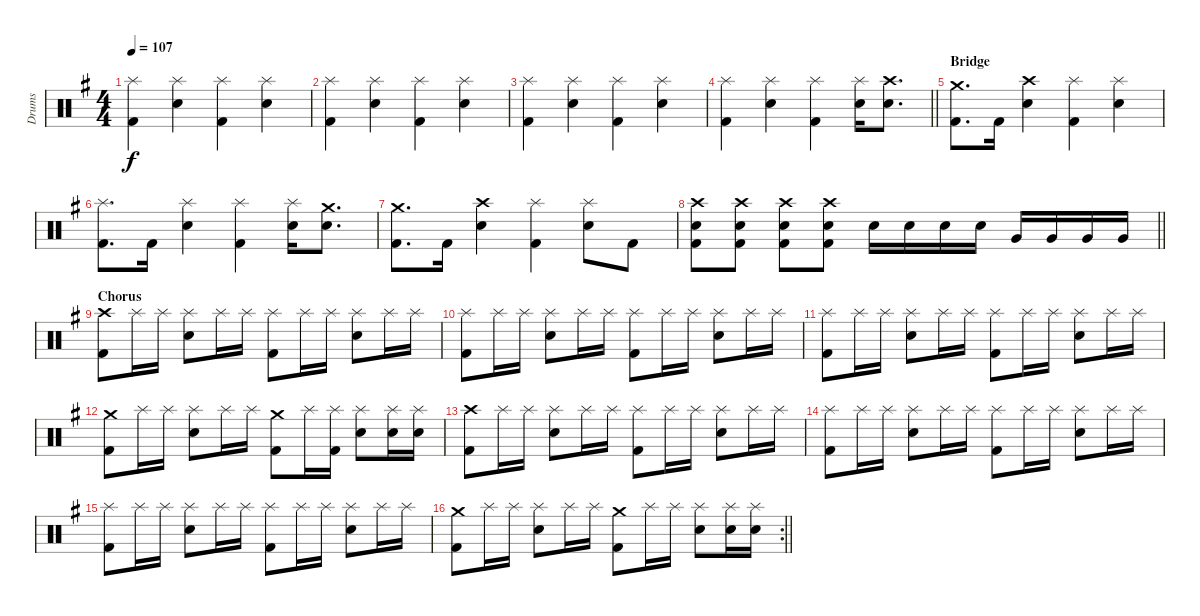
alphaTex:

\track ("Drums" "Drums") {instrument percussion}
\staff {score}
\articulation defaults
\ts (4 4)
\tempo 107
\clef neutral
\ks eminor
("Splash (hit)" "Kick (hit) 2").4{dy f} ("Splash (hit)" "Snare (hit) 2").4 ("Splash (hit)" "Kick (hit) 2").4 ("Splash (hit)" "Snare (hit) 2").4 |
("Splash (hit)" "Kick (hit) 2").4 ("Splash (hit)" "Snare (hit) 2").4 ("Splash (hit)" "Kick (hit) 2").4 ("Splash (hit)" "Snare (hit) 2").4 |
("Splash (hit)" "Kick (hit) 2").4 ("Splash (hit)" "Snare (hit) 2").4 ("Splash (hit)" "Kick (hit) 2").4 ("Splash (hit)" "Snare (hit) 2").4 |
\barLineRight lightlight
("Splash (hit)" "Kick (hit) 2").4 ("Splash (hit)" "Snare (hit) 2").4 ("Splash (hit)" "Kick (hit) 2").4 ("Splash (hit)" "Snare (hit) 2").16 ("Crash high (hit)" "Snare (hit) 2").8{d} |
\section ("" "Bridge")
("Crash medium (hit)" "Kick (hit) 2").8{d} "Kick (hit) 2".16 ("Crash high (hit)" "Snare (hit) 2").4 ("Splash (hit)" "Kick (hit) 2").4 ("Splash (hit)" "Snare (hit) 2").4 |
("Splash (hit)" "Kick (hit) 2").8{d} "Kick (hit) 2".16 ("Splash (hit)" "Snare (hit) 2").4 ("Splash (hit)" "Kick (hit) 2").4 ("Splash (hit)" "Snare (hit) 2").16 ("Crash medium (hit)" "Snare (hit) 2").8{d} |
("Crash medium (hit)" "Kick (hit) 2").8{d} "Kick (hit) 2".16 ("Crash high (hit)" "Snare (hit) 2").4 ("Splash (hit)" "Kick (hit) 2").4 ("Splash (hit)" "Snare (hit) 2").8 "Kick (hit) 2".8 |
\barLineRight lightlight
("Crash high (hit)" "Snare (hit) 2" "Kick (hit) 2").8 ("Crash high (hit)" "Snare (hit) 2" "Kick (hit) 2").8 ("Crash high (hit)" "Snare (hit) 2" "Kick (hit) 2").8 ("Crash high (hit)" "Snare (hit) 2" "Kick (hit) 2").8 "Snare (hit) 2".16 "Snare (hit) 2".16 "Snare (hit) 2".16 "Snare (hit) 2".16 "Very Low Tom (hit)".16 "Very Low Tom (hit)".16 "Very Low Tom (hit)".16 "Very Low Tom (hit)".16 |
\section ("" "Chorus")
("Crash high (hit)" "Kick (hit) 2").8 "Splash (hit)".16 "Splash (hit)".16 ("Splash (hit)" "Snare (hit) 2").8 "Splash (hit)".16 "Splash (hit)".16 ("Splash (hit)" "Kick (hit) 2").8 "Splash (hit)".16 "Splash (hit)".16 ("Splash (hit)" "Snare (hit) 2").8 "Splash (hit)".16 "Splash (hit)".16 |
("Splash (hit)" "Kick (hit) 2").8 "Splash (hit)".16 "Splash (hit)".16 ("Splash (hit)" "Snare (hit) 2").8 "Splash (hit)".16 "Splash (hit)".16 ("Splash (hit)" "Kick (hit) 2").8 "Splash (hit)".16 "Splash (hit)".16 ("Splash (hit)" "Snare (hit) 2").8 "Splash (hit)".16 "Splash (hit)".16 |
("Splash (hit)" "Kick (hit) 2").8 "Splash (hit)".16 "Splash (hit)".16 ("Splash (hit)" "Snare (hit) 2").8 "Splash (hit)".16 "Splash (hit)".16 ("Splash (hit)" "Kick (hit) 2").8 "Splash (hit)".16 "Splash (hit)".16 ("Splash (hit)" "Snare (hit) 2").8 "Splash (hit)".16 "Splash (hit)".16 |
("Crash medium (hit)" "Kick (hit) 2").8 "Splash (hit)".16 "Splash (hit)".16 ("Splash (hit)" "Snare (hit) 2").8 "Splash (hit)".16 "Splash (hit)".16 ("Crash medium (hit)" "Kick (hit) 2").8 "Splash (hit)".16 ("Splash (hit)" "Kick (hit) 2").16 ("Splash (hit)" "Snare (hit) 2").8 ("Splash (hit)" "Snare (hit) 2").16 ("Splash (hit)" "Snare (hit) 2").16 |
("Crash high (hit)" "Kick (hit) 2").8 "Splash (hit)".16 "Splash (hit)".16 ("Splash (hit)" "Snare (hit) 2").8 "Splash (hit)".16 "Splash (hit)".16 ("Splash (hit)" "Kick (hit) 2").8 "Splash (hit)".16 "Splash (hit)".16 ("Splash (hit)" "Snare (hit) 2").8 "Splash (hit)".16 "Splash (hit)".16 |
("Splash (hit)" "Kick (hit) 2").8 "Splash (hit)".16 "Splash (hit)".16 ("Splash (hit)" "Snare (hit) 2").8 "Splash (hit)".16 "Splash (hit)".16 ("Splash (hit)" "Kick (hit) 2").8 "Splash (hit)".16 "Splash (hit)".16 ("Splash (hit)" "Snare (hit) 2").8 "Splash (hit)".16 "Splash (hit)".16 |
("Splash (hit)" "Kick (hit) 2").8 "Splash (hit)".16 "Splash (hit)".16 ("Splash (hit)" "Snare (hit) 2").8 "Splash (hit)".16 "Splash (hit)".16 ("Splash (hit)" "Kick (hit) 2").8 "Splash (hit)".16 "Splash (hit)".16 ("Splash (hit)" "Snare (hit) 2").8 "Splash (hit)".16 "Splash (hit)".16 |
\rc 2
\barLineRight lightlight
("Crash medium (hit)" "Kick (hit) 2").8 "Splash (hit)".16 "Splash (hit)".16 ("Splash (hit)" "Snare (hit) 2").8 "Splash (hit)".16 "Splash (hit)".16 ("Crash medium (hit)" "Kick (hit) 2").8 "Splash (hit)".16 "Splash (hit)".16 ("Splash (hit)" "Snare (hit) 2").8 ("Splash (hit)" "Snare (hit) 2").16 ("Splash (hit)" "Snare (hit) 2").16
